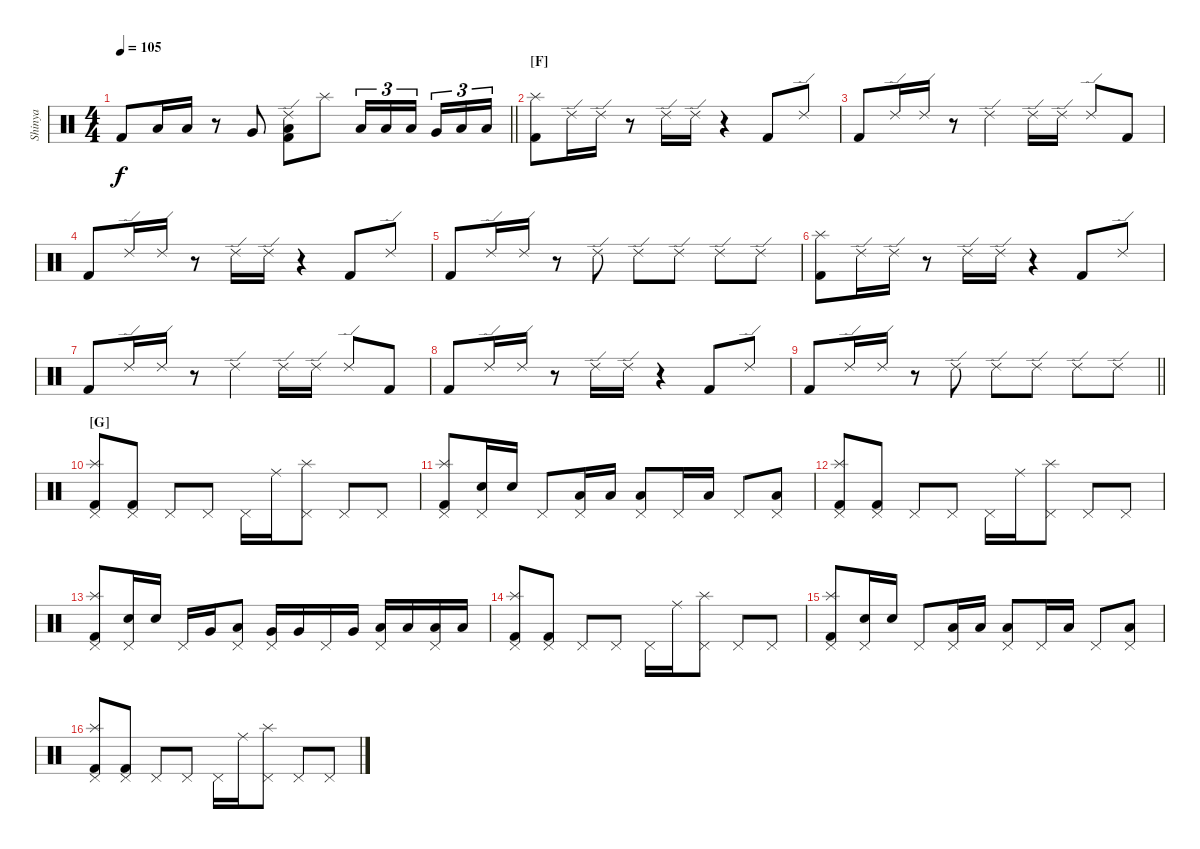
\track ("Shinya" "Shinya") {instrument percussion}
\staff {score}
\articulation defaults
\ts (4 4)
\tempo 105
\clef neutral
\barLineRight lightlight
\ks c "Kick (hit) 2".8{dy f} "Low Tom (hit)".16 "Low Tom (hit)".16
r.8 "Very Low Tom (hit)".8 ("Ride (edge) 2" "Low Floor Tom (hit)" "Kick (hit) 2").8 "Splash (hit)".8 "Low Tom (hit)".16{tu (3 2)} "Low Tom (hit)".16{tu (3 2)} "Low Tom (hit)".16{tu (3 2) beam splitsecondary} "Very Low Tom (hit)".16{tu (3 2)} "Low Floor Tom (hit)".16{tu (3 2)} "Low Floor Tom (hit)".16{tu (3 2)} |
\section ("" "[F]")
("Splash (hit)" "Kick (hit) 2").8 "Ride (edge) 2".16 "Ride (edge) 2".16 r.8 "Ride (edge) 2".16 "Ride (edge) 2".16 r.4 "Kick (hit) 2".8 "Ride (edge) 2".8 |
"Kick (hit) 2".8 "Ride (edge) 2".16 "Ride (edge) 2".16 r.8 "Ride (edge) 2".4 "Ride (edge) 2".16 "Ride (edge) 2".16 "Ride (edge) 2".8 "Kick (hit) 2".8 |
"Kick (hit) 2".8 "Ride (edge) 2".16 "Ride (edge) 2".16 r.8 "Ride (edge) 2".16 "Ride (edge) 2".16 r.4 "Kick (hit) 2".8 "Ride (edge) 2".8 |
"Kick (hit) 2".8 "Ride (edge) 2".16 "Ride (edge) 2".16 r.8 "Ride (edge) 2".8 "Ride (edge) 2".8 "Ride (edge) 2".8 "Ride (edge) 2".8 "Ride (edge) 2".8 |
("Splash (hit)" "Kick (hit) 2").8 "Ride (edge) 2".16 "Ride (edge) 2".16 r.8 "Ride (edge) 2".16 "Ride (edge) 2".16 r.4 "Kick (hit) 2".8 "Ride (edge) 2".8 |
"Kick (hit) 2".8 "Ride (edge) 2".16 "Ride (edge) 2".16 r.8 "Ride (edge) 2".4 "Ride (edge) 2".16 "Ride (edge) 2".16 "Ride (edge) 2".8 "Kick (hit) 2".8 |
"Kick (hit) 2".8 "Ride (edge) 2".16 "Ride (edge) 2".16 r.8 "Ride (edge) 2".16 "Ride (edge) 2".16 r.4 "Kick (hit) 2".8 "Ride (edge) 2".8 |
\barLineRight lightlight "Kick (hit) 2".8 "Ride (edge) 2".16 "Ride (edge) 2".16
r.8 "Ride (edge) 2".8 "Ride (edge) 2".8 "Ride (edge) 2".8 "Ride (edge) 2".8 "Ride (edge) 2".8 |
\section ("" "[G]")
("Splash (hit)" "Pedal Hi-Hat (hit)" "Kick (hit) 2").8 ("Pedal Hi-Hat (hit)" "Kick (hit) 2").8 "Pedal Hi-Hat (hit)".8 "Pedal Hi-Hat (hit)".8 "Pedal Hi-Hat (hit)".16 "Ride (middle)".16 ("Splash (hit)" "Pedal Hi-Hat (hit)").8 "Pedal Hi-Hat (hit)".8 "Pedal Hi-Hat (hit)".8 |
("Splash (hit)" "Pedal Hi-Hat (hit)" "Kick (hit) 2").8 ("Snare (hit) 2" "Pedal Hi-Hat (hit)").16 "Snare (hit) 2".16 "Pedal Hi-Hat (hit)".8 ("Low Tom (hit)" "Pedal Hi-Hat (hit)").16 "Low Tom (hit)".16 ("Low Floor Tom (hit)" "Pedal Hi-Hat (hit)").8 "Pedal Hi-Hat (hit)".16 "Low Floor Tom (hit)".16 "Pedal Hi-Hat (hit)".8 ("Low Floor Tom (hit)" "Pedal Hi-Hat (hit)").8 |
("Splash (hit)" "Pedal Hi-Hat (hit)" "Kick (hit) 2").8 ("Pedal Hi-Hat (hit)" "Kick (hit) 2").8 "Pedal Hi-Hat (hit)".8 "Pedal Hi-Hat (hit)".8 "Pedal Hi-Hat (hit)".16 "Ride (middle)".16 ("Splash (hit)" "Pedal Hi-Hat (hit)").8 "Pedal Hi-Hat (hit)".8 "Pedal Hi-Hat (hit)".8 |
("Splash (hit)" "Pedal Hi-Hat (hit)" "Kick (hit) 2").8 ("Snare (hit) 2" "Pedal Hi-Hat (hit)").16 "Snare (hit) 2".16 "Pedal Hi-Hat (hit)".16 "Very Low Tom (hit)".16 ("Low Tom (hit)" "Pedal Hi-Hat (hit)").8 ("Very Low Tom (hit)" "Pedal Hi-Hat (hit)").16 "Very Low Tom (hit)".16 "Pedal Hi-Hat (hit)".16 "Very Low Tom (hit)".16 ("Low Floor Tom (hit)" "Pedal Hi-Hat (hit)").16 "Low Floor Tom (hit)".16 ("Low Floor Tom (hit)" "Pedal Hi-Hat (hit)").16 "Low Floor Tom (hit)".16 |
("Splash (hit)" "Pedal Hi-Hat (hit)" "Kick (hit) 2").8 ("Pedal Hi-Hat (hit)" "Kick (hit) 2").8 "Pedal Hi-Hat (hit)".8 "Pedal Hi-Hat (hit)".8 "Pedal Hi-Hat (hit)".16 "Ride (middle)".16 ("Splash (hit)" "Pedal Hi-Hat (hit)").8 "Pedal Hi-Hat (hit)".8 "Pedal Hi-Hat (hit)".8 |
("Splash (hit)" "Pedal Hi-Hat (hit)" "Kick (hit) 2").8 ("Snare (hit) 2" "Pedal Hi-Hat (hit)").16 "Snare (hit) 2".16 "Pedal Hi-Hat (hit)".8 ("Low Tom (hit)" "Pedal Hi-Hat (hit)").16 "Low Tom (hit)".16 ("Low Floor Tom (hit)" "Pedal Hi-Hat (hit)").8 "Pedal Hi-Hat (hit)".16 "Low Floor Tom (hit)".16 "Pedal Hi-Hat (hit)".8 ("Low Floor Tom (hit)" "Pedal Hi-Hat (hit)").8 |
("Splash (hit)" "Pedal Hi-Hat (hit)" "Kick (hit) 2").8 ("Pedal Hi-Hat (hit)" "Kick (hit) 2").8 "Pedal Hi-Hat (hit)".8 "Pedal Hi-Hat (hit)".8 "Pedal Hi-Hat (hit)".16 "Ride (middle)".16 ("Splash (hit)" "Pedal Hi-Hat (hit)").8 "Pedal Hi-Hat (hit)".8 "Pedal Hi-Hat (hit)".8
